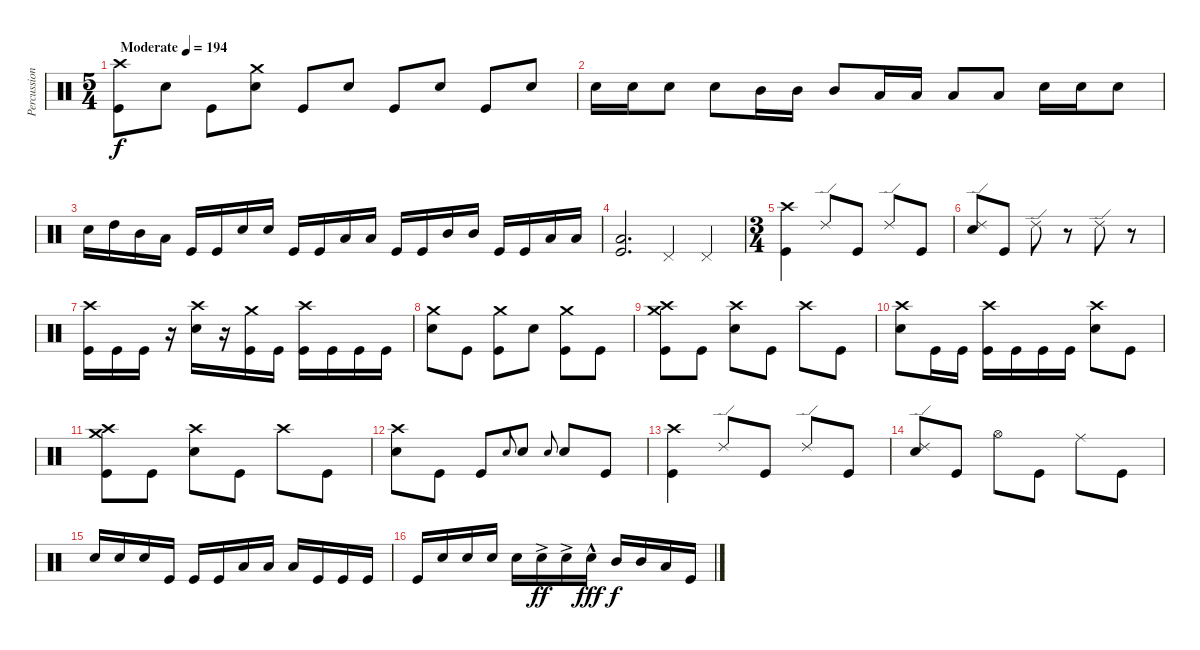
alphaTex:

\track ("Percussion" "Percussion") {instrument percussion}
\staff {score}
\articulation defaults
\ts (5 4)
\tempo (194 "Moderate")
\clef neutral
\ks c
("Crash high (hit)" "Kick (hit)").8{dy f} "Snare (hit) 2".8 "Kick (hit)".8 ("Crash medium (hit)" "Snare (hit) 2").8 "Kick (hit)".8 "Snare (hit) 2".8 "Kick (hit)".8 "Snare (hit) 2".8 "Kick (hit)".8 "Snare (hit) 2".8 |
"Snare (hit) 2".16 "Snare (hit) 2".16 "Snare (hit) 2".8 "Snare (hit) 2".8 "Mid Tom (hit)".16 "Mid Tom (hit)".16 "Mid Tom (hit)".8 "Low Tom (hit)".16 "Low Tom (hit)".16 "Low Tom (hit)".8 "Low Tom (hit)".8 "Snare (hit) 2".16 "Snare (hit) 2".16 "Snare (hit) 2".8 |
"Snare (hit) 2".16 "High Tom (hit)".16 "Mid Tom (hit)".16 "Low Tom (hit)".16 "Kick (hit)".16 "Kick (hit)".16 "Snare (hit) 2".16 "Snare (hit) 2".16 "Kick (hit)".16 "Kick (hit)".16 "Low Tom (hit)".16 "Low Tom (hit)".16 "Kick (hit)".16 "Kick (hit)".16 "Mid Tom (hit)".16 "Mid Tom (hit)".16 "Kick (hit)".16 "Kick (hit)".16 "Low Tom (hit)".16 "Low Tom (hit)".16 |
("Kick (hit)" "Low Tom (hit)").2{d} "Pedal Hi-Hat (hit)".4 "Pedal Hi-Hat (hit)".4 |
\ts (3 4)
("Crash high (hit)" "Kick (hit)").4 "Ride (edge) 2".8 "Kick (hit)".8 "Ride (edge) 2".8 "Kick (hit)".8 |
("Ride (edge) 2" "Snare (hit) 2").8 "Kick (hit)".8 "Ride (edge) 2".8 r.8 "Ride (edge) 2".8 r.8 |
("Crash high (hit)" "Kick (hit)").16 "Kick (hit)".16 "Kick (hit)".16 r.16 ("Crash high (hit)" "Snare (hit) 2").16 r.16 ("Crash medium (hit)" "Kick (hit)").16 "Kick (hit)".16 ("Crash high (hit)" "Kick (hit)").16 "Kick (hit)".16 "Kick (hit)".16 "Kick (hit)".16 |
("Snare (hit) 2" "Crash medium (hit)").8 "Kick (hit)".8 ("Kick (hit)" "Crash medium (hit)").8 "Snare (hit) 2".8 ("Kick (hit)" "Crash medium (hit)").8 "Kick (hit)".8 |
("Kick (hit)" "Crash high (hit)" "Crash medium (hit)").8 "Kick (hit)".8 ("Snare (hit) 2" "Crash high (hit)").8 "Kick (hit)".8 "Crash high (hit)".8 "Kick (hit)".8 |
("Snare (hit) 2" "Crash high (hit)").8 "Kick (hit)".16 "Kick (hit)".16 ("Kick (hit)" "Crash high (hit)").16 "Kick (hit)".16 "Kick (hit)".16 "Kick (hit)".16 ("Snare (hit) 2" "Crash high (hit)").8 "Kick (hit)".8 |
("Kick (hit)" "Crash high (hit)" "Crash medium (hit)").8 "Kick (hit)".8 ("Snare (hit) 2" "Crash high (hit)").8 "Kick (hit)".8 "Crash high (hit)".8 "Kick (hit)".8 |
("Snare (hit) 2" "Crash high (hit)").8 "Kick (hit)".8 "Kick (hit)".8 "Snare (hit) 2".8{gr onbeat} "Snare (hit) 2".8 "Snare (hit) 2".8{gr onbeat} "Snare (hit) 2".8 "Kick (hit)".8 |
("Crash high (hit)" "Kick (hit)").4 "Ride (edge) 2".8 "Kick (hit)".8 "Ride (edge) 2".8 "Kick (hit)".8 |
("Ride (edge) 2" "Snare (hit) 2").8 "Kick (hit)".8 "Hi-Hat (open)".8 "Kick (hit)".8 "Ride (middle)".8 "Kick (hit)".8 |
"Snare (hit) 2".16 "Snare (hit) 2".16 "Snare (hit) 2".16 "Kick (hit)".16 "Kick (hit)".16 "Kick (hit)".16 "Low Tom (hit)".16 "Low Tom (hit)".16 "Low Tom (hit)".16 "Kick (hit)".16 "Kick (hit)".16 "Kick (hit)".16 |
"Kick (hit)".16 "Snare (hit) 2".16 "Snare (hit) 2".16 "Snare (hit) 2".16 "Snare (hit) 2".16 "Snare (hit) 2"{ac}.16{dy ff} "Snare (hit) 2"{ac}.16 "Snare (hit) 2"{hac}.16{dy fff} "Mid Tom (hit)".16{dy f} "Mid Tom (hit)".16 "Low Tom (hit)".16 "Kick (hit)".16
